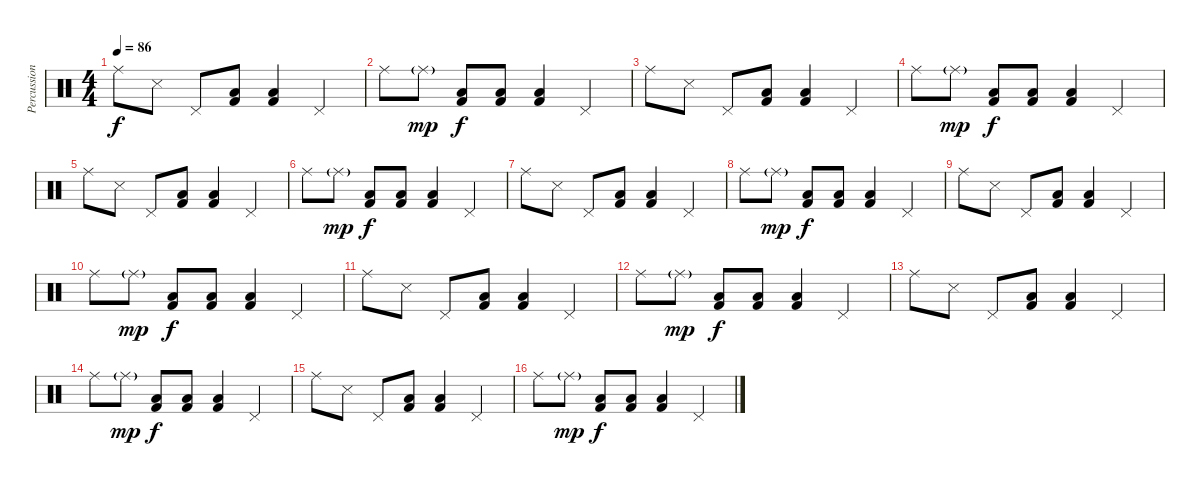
\track ("Percussion" "Percussion") {instrument percussion}
\staff {score}
\articulation defaults
\ts (4 4)
\tempo 86
\clef neutral
\ks c "Ride (middle)".8{dy f} "Snare (side stick) 3".8 "Pedal Hi-Hat (hit)".8
("Low Tom (hit)" "Kick (hit) 2").8 ("Low Tom (hit)" "Kick (hit) 2").4 "Pedal Hi-Hat (hit)".4 |
"Ride (middle)".8 "Ride (middle)"{g}.8{dy mp} ("Low Tom (hit)" "Kick (hit) 2").8{dy f} ("Low Tom (hit)" "Kick (hit) 2").8 ("Low Tom (hit)" "Kick (hit) 2").4 "Pedal Hi-Hat (hit)".4 |
"Ride (middle)".8 "Snare (side stick) 3".8 "Pedal Hi-Hat (hit)".8 ("Low Tom (hit)" "Kick (hit) 2").8 ("Low Tom (hit)" "Kick (hit) 2").4 "Pedal Hi-Hat (hit)".4 |
"Ride (middle)".8 "Ride (middle)"{g}.8{dy mp} ("Low Tom (hit)" "Kick (hit) 2").8{dy f} ("Low Tom (hit)" "Kick (hit) 2").8 ("Low Tom (hit)" "Kick (hit) 2").4 "Pedal Hi-Hat (hit)".4 |
"Ride (middle)".8 "Snare (side stick) 3".8 "Pedal Hi-Hat (hit)".8 ("Low Tom (hit)" "Kick (hit) 2").8 ("Low Tom (hit)" "Kick (hit) 2").4 "Pedal Hi-Hat (hit)".4 |
"Ride (middle)".8 "Ride (middle)"{g}.8{dy mp} ("Low Tom (hit)" "Kick (hit) 2").8{dy f} ("Low Tom (hit)" "Kick (hit) 2").8 ("Low Tom (hit)" "Kick (hit) 2").4 "Pedal Hi-Hat (hit)".4 |
"Ride (middle)".8 "Snare (side stick) 3".8 "Pedal Hi-Hat (hit)".8 ("Low Tom (hit)" "Kick (hit) 2").8 ("Low Tom (hit)" "Kick (hit) 2").4 "Pedal Hi-Hat (hit)".4 |
"Ride (middle)".8 "Ride (middle)"{g}.8{dy mp} ("Low Tom (hit)" "Kick (hit) 2").8{dy f} ("Low Tom (hit)" "Kick (hit) 2").8 ("Low Tom (hit)" "Kick (hit) 2").4 "Pedal Hi-Hat (hit)".4 |
"Ride (middle)".8 "Snare (side stick) 3".8 "Pedal Hi-Hat (hit)".8 ("Low Tom (hit)" "Kick (hit) 2").8 ("Low Tom (hit)" "Kick (hit) 2").4 "Pedal Hi-Hat (hit)".4 |
"Ride (middle)".8 "Ride (middle)"{g}.8{dy mp} ("Low Tom (hit)" "Kick (hit) 2").8{dy f} ("Low Tom (hit)" "Kick (hit) 2").8 ("Low Tom (hit)" "Kick (hit) 2").4 "Pedal Hi-Hat (hit)".4 |
"Ride (middle)".8 "Snare (side stick) 3".8 "Pedal Hi-Hat (hit)".8 ("Low Tom (hit)" "Kick (hit) 2").8 ("Low Tom (hit)" "Kick (hit) 2").4 "Pedal Hi-Hat (hit)".4 |
"Ride (middle)".8 "Ride (middle)"{g}.8{dy mp} ("Low Tom (hit)" "Kick (hit) 2").8{dy f} ("Low Tom (hit)" "Kick (hit) 2").8 ("Low Tom (hit)" "Kick (hit) 2").4 "Pedal Hi-Hat (hit)".4 |
"Ride (middle)".8 "Snare (side stick) 3".8 "Pedal Hi-Hat (hit)".8 ("Low Tom (hit)" "Kick (hit) 2").8 ("Low Tom (hit)" "Kick (hit) 2").4 "Pedal Hi-Hat (hit)".4 |
"Ride (middle)".8 "Ride (middle)"{g}.8{dy mp} ("Low Tom (hit)" "Kick (hit) 2").8{dy f} ("Low Tom (hit)" "Kick (hit) 2").8 ("Low Tom (hit)" "Kick (hit) 2").4 "Pedal Hi-Hat (hit)".4 |
"Ride (middle)".8 "Snare (side stick) 3".8 "Pedal Hi-Hat (hit)".8 ("Low Tom (hit)" "Kick (hit) 2").8 ("Low Tom (hit)" "Kick (hit) 2").4 "Pedal Hi-Hat (hit)".4 |
"Ride (middle)".8 "Ride (middle)"{g}.8{dy mp} ("Low Tom (hit)" "Kick (hit) 2").8{dy f} ("Low Tom (hit)" "Kick (hit) 2").8 ("Low Tom (hit)" "Kick (hit) 2").4 "Pedal Hi-Hat (hit)".4
